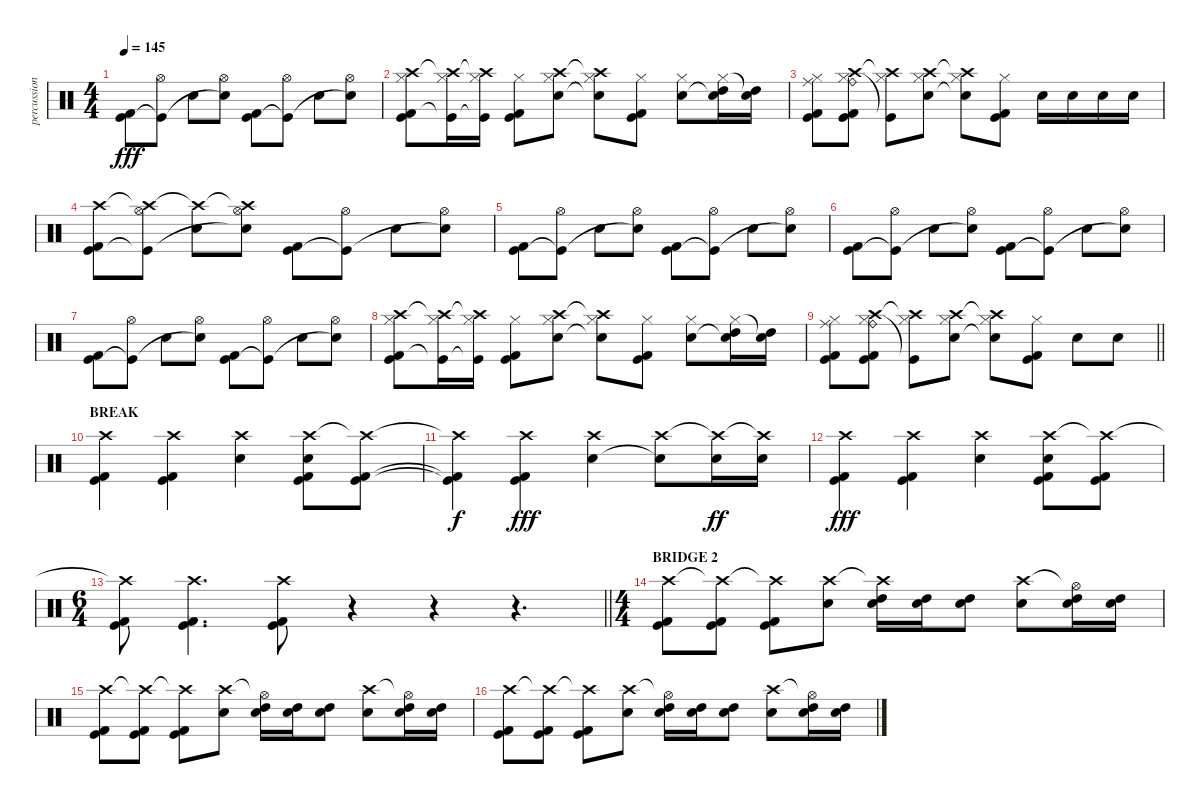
\track ("percussion" "percussion") {instrument percussion}
\staff {score}
\articulation defaults
\ts (4 4)
\tempo 145
\clef neutral
\ks c
("Kick (hit) 2" "Kick (hit)").8{dy fff} ("Hi-Hat (open)" "Kick (hit)"{t}).8 "Electric Snare (hit)".8 ("Hi-Hat (open)" "Electric Snare (hit)"{t}).8 ("Kick (hit) 2" "Kick (hit)").8 ("Hi-Hat (open)" "Kick (hit)"{t}).8 "Electric Snare (hit)".8 ("Hi-Hat (open)" "Electric Snare (hit)"{t}).8 |
("Crash high (hit)" "Hi-Hat (closed)" "Kick (hit) 2" "Kick (hit)").8 ("Crash high (hit)"{t} "Hi-Hat (closed)" "Kick (hit)"{t}).16 ("Crash high (hit)"{t} "Hi-Hat (closed)" "Kick (hit)"{t}).16 ("Hi-Hat (closed)" "Kick (hit) 2" "Kick (hit)").8 ("Crash high (hit)" "Hi-Hat (closed)" "Electric Snare (hit)").8 ("Crash high (hit)"{t} "Hi-Hat (closed)" "Electric Snare (hit)"{t}).8 ("Hi-Hat (closed)" "Kick (hit) 2" "Kick (hit)").8 ("Hi-Hat (closed)" "Electric Snare (hit)").8 ("Hi-Hat (closed)" "Electric Snare (hit)"{t} "High Tom (hit)").16 ("Electric Snare (hit)"{t} "High Tom (hit)").16 |
("Ride (middle)" "Hi-Hat (closed)" "Kick (hit) 2" "Kick (hit)").8 ("Crash high (hit)" "Ride (bell)" "Hi-Hat (closed)" "Kick (hit) 2" "Kick (hit)").8 ("Crash high (hit)"{t} "Hi-Hat (closed)" "Kick (hit)"{t}).8 ("Crash high (hit)" "Hi-Hat (closed)" "Electric Snare (hit)").8 ("Crash high (hit)"{t} "Hi-Hat (closed)" "Electric Snare (hit)"{t}).8 ("Hi-Hat (closed)" "Kick (hit) 2" "Kick (hit)").8 "Electric Snare (hit)".16 "Electric Snare (hit)".16 "Electric Snare (hit)".16 "Electric Snare (hit)".16 |
("Crash high (hit)" "Kick (hit) 2" "Kick (hit)").8 ("Crash high (hit)"{t} "Hi-Hat (open)" "Kick (hit)"{t}).8 ("Crash high (hit)"{t} "Electric Snare (hit)").8 ("Crash high (hit)"{t} "Hi-Hat (open)" "Electric Snare (hit)"{t}).8 ("Kick (hit) 2" "Kick (hit)").8 ("Hi-Hat (open)" "Kick (hit)"{t}).8 "Electric Snare (hit)".8 ("Hi-Hat (open)" "Electric Snare (hit)"{t}).8 |
("Kick (hit) 2" "Kick (hit)").8 ("Hi-Hat (open)" "Kick (hit)"{t}).8 "Electric Snare (hit)".8 ("Hi-Hat (open)" "Electric Snare (hit)"{t}).8 ("Kick (hit) 2" "Kick (hit)").8 ("Hi-Hat (open)" "Kick (hit)"{t}).8 "Electric Snare (hit)".8 ("Hi-Hat (open)" "Electric Snare (hit)"{t}).8 |
("Kick (hit) 2" "Kick (hit)").8 ("Hi-Hat (open)" "Kick (hit)"{t}).8 "Electric Snare (hit)".8 ("Hi-Hat (open)" "Electric Snare (hit)"{t}).8 ("Kick (hit) 2" "Kick (hit)").8 ("Hi-Hat (open)" "Kick (hit)"{t}).8 "Electric Snare (hit)".8 ("Hi-Hat (open)" "Electric Snare (hit)"{t}).8 |
("Kick (hit) 2" "Kick (hit)").8 ("Hi-Hat (open)" "Kick (hit)"{t}).8 "Electric Snare (hit)".8 ("Hi-Hat (open)" "Electric Snare (hit)"{t}).8 ("Kick (hit) 2" "Kick (hit)").8 ("Hi-Hat (open)" "Kick (hit)"{t}).8 "Electric Snare (hit)".8 ("Hi-Hat (open)" "Electric Snare (hit)"{t}).8 |
("Crash high (hit)" "Hi-Hat (closed)" "Kick (hit) 2" "Kick (hit)").8 ("Crash high (hit)"{t} "Hi-Hat (closed)" "Kick (hit)"{t}).16 ("Crash high (hit)"{t} "Hi-Hat (closed)" "Kick (hit)"{t}).16 ("Hi-Hat (closed)" "Kick (hit) 2" "Kick (hit)").8 ("Crash high (hit)" "Hi-Hat (closed)" "Electric Snare (hit)").8 ("Crash high (hit)"{t} "Hi-Hat (closed)" "Electric Snare (hit)"{t}).8 ("Hi-Hat (closed)" "Kick (hit) 2" "Kick (hit)").8 ("Hi-Hat (closed)" "Electric Snare (hit)").8 ("Hi-Hat (closed)" "Electric Snare (hit)"{t} "High Tom (hit)").16 ("Electric Snare (hit)"{t} "High Tom (hit)").16 |
\barLineRight lightlight
("Ride (middle)" "Hi-Hat (closed)" "Kick (hit) 2" "Kick (hit)").8 ("Crash high (hit)" "Ride (bell)" "Hi-Hat (closed)" "Kick (hit) 2" "Kick (hit)").8 ("Crash high (hit)"{t} "Hi-Hat (closed)" "Kick (hit)"{t}).8 ("Crash high (hit)" "Hi-Hat (closed)" "Electric Snare (hit)").8 ("Crash high (hit)"{t} "Hi-Hat (closed)" "Electric Snare (hit)"{t}).8 ("Hi-Hat (closed)" "Kick (hit) 2" "Kick (hit)").8 "Electric Snare (hit)".8 "Electric Snare (hit)".8 |
\section ("" "BREAK")
("Crash high (hit)" "Kick (hit) 2" "Kick (hit)").4 ("Crash high (hit)" "Kick (hit) 2" "Kick (hit)").4 ("Crash high (hit)" "Electric Snare (hit)").4 ("Crash high (hit)" "Electric Snare (hit)" "Kick (hit) 2" "Kick (hit)").8 ("Crash high (hit)"{t} "Kick (hit) 2" "Kick (hit)").8 |
("Crash high (hit)"{t} "Kick (hit) 2"{t} "Kick (hit)"{t}).4{dy f} ("Crash high (hit)" "Kick (hit) 2" "Kick (hit)").4{dy fff} ("Crash high (hit)" "Electric Snare (hit)").4 ("Crash high (hit)" "Electric Snare (hit)"{t}).8 ("Crash high (hit)"{t} "Electric Snare (hit)").16{dy ff} ("Crash high (hit)"{t} "Electric Snare (hit)").16 |
("Crash high (hit)" "Kick (hit) 2" "Kick (hit)").4{dy fff} ("Crash high (hit)" "Kick (hit) 2" "Kick (hit)").4 ("Crash high (hit)" "Electric Snare (hit)").4 ("Crash high (hit)" "Electric Snare (hit)" "Kick (hit) 2" "Kick (hit)").8 ("Crash high (hit)"{t} "Kick (hit) 2" "Kick (hit)").8 |
\ts (6 4)
\barLineRight lightlight
("Crash high (hit)"{t} "Kick (hit) 2" "Kick (hit)").8 ("Crash high (hit)" "Kick (hit) 2" "Kick (hit)").4{d} ("Crash high (hit)" "Kick (hit) 2" "Kick (hit)").8 r.4 r.4 r.4{d} |
\ts (4 4)
\section ("" "BRIDGE 2")
("Crash high (hit)" "Kick (hit) 2" "Kick (hit)").8 ("Crash high (hit)"{t} "Kick (hit) 2" "Kick (hit)").8 ("Crash high (hit)"{t} "Kick (hit) 2" "Kick (hit)").8 ("Crash high (hit)" "Electric Snare (hit)").8 ("Crash high (hit)"{t} "Electric Snare (hit)" "High Tom (hit)").16 ("Electric Snare (hit)" "High Tom (hit)").16 ("Electric Snare (hit)" "High Tom (hit)").8 ("Crash high (hit)" "Electric Snare (hit)").8 ("Hi-Hat (open)"{t} "Electric Snare (hit)" "High Tom (hit)").16 ("Electric Snare (hit)" "High Tom (hit)").16 |
("Crash high (hit)" "Kick (hit) 2" "Kick (hit)").8 ("Crash high (hit)"{t} "Kick (hit) 2" "Kick (hit)").8 ("Crash high (hit)"{t} "Kick (hit) 2" "Kick (hit)").8 ("Crash high (hit)" "Electric Snare (hit)").8 ("Hi-Hat (open)"{t} "Electric Snare (hit)" "High Tom (hit)").16 ("Electric Snare (hit)" "High Tom (hit)").16 ("Electric Snare (hit)" "High Tom (hit)").8 ("Crash high (hit)" "Electric Snare (hit)").8 ("Hi-Hat (open)"{t} "Electric Snare (hit)" "High Tom (hit)").16 ("Electric Snare (hit)" "High Tom (hit)").16 |
("Crash high (hit)" "Kick (hit) 2" "Kick (hit)").8 ("Crash high (hit)"{t} "Kick (hit) 2" "Kick (hit)").8 ("Crash high (hit)"{t} "Kick (hit) 2" "Kick (hit)").8 ("Crash high (hit)" "Electric Snare (hit)").8 ("Hi-Hat (open)"{t} "Electric Snare (hit)" "High Tom (hit)").16 ("Electric Snare (hit)" "High Tom (hit)").16 ("Electric Snare (hit)" "High Tom (hit)").8 ("Crash high (hit)" "Electric Snare (hit)").8 ("Hi-Hat (open)"{t} "Electric Snare (hit)" "High Tom (hit)").16 ("Electric Snare (hit)" "High Tom (hit)").16
